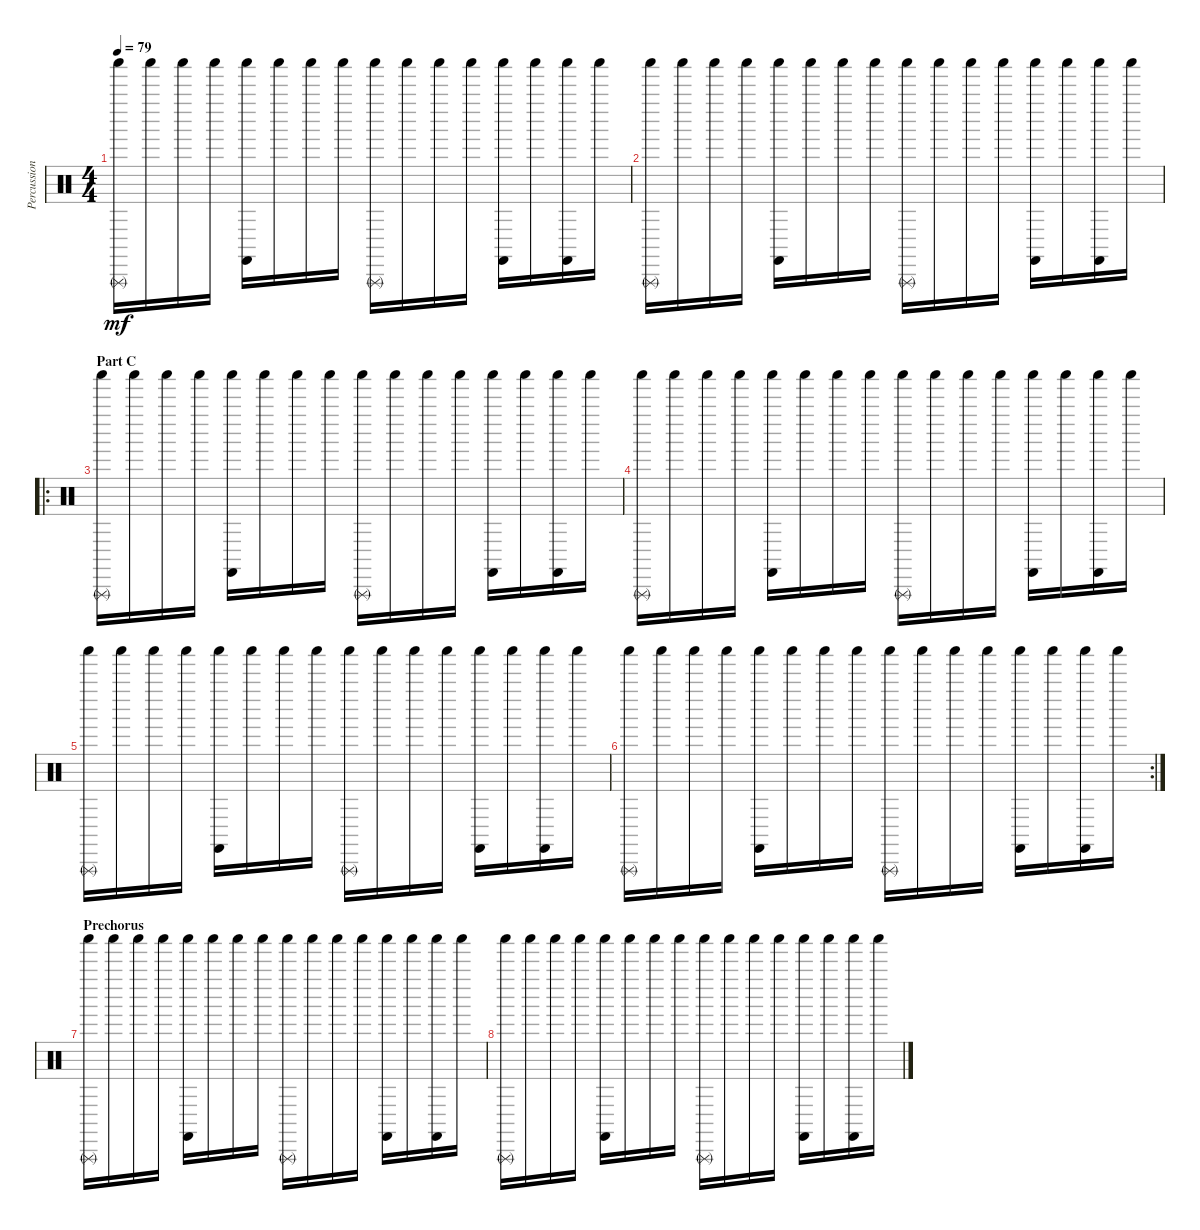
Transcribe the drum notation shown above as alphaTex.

\track ("Percussion" "Percussion") {instrument percussion}
\staff {score}
\articulation defaults
\ts (4 4)
\tempo 79
\clef neutral
\ks c
("Shaker (hit)" "Triangle (rnute)").16{dy mf} "Shaker (hit)".16 "Shaker (hit)".16 "Shaker (hit)".16 ("Shaker (hit)" "Castanets (hit)").16 "Shaker (hit)".16 "Shaker (hit)".16 "Shaker (hit)".16 ("Shaker (hit)" "Triangle (rnute)").16 "Shaker (hit)".16 "Shaker (hit)".16 "Shaker (hit)".16 ("Shaker (hit)" "Castanets (hit)").16 "Shaker (hit)".16 ("Shaker (hit)" "Castanets (hit)").16 "Shaker (hit)".16 |
("Shaker (hit)" "Triangle (rnute)").16 "Shaker (hit)".16 "Shaker (hit)".16 "Shaker (hit)".16 ("Shaker (hit)" "Castanets (hit)").16 "Shaker (hit)".16 "Shaker (hit)".16 "Shaker (hit)".16 ("Shaker (hit)" "Triangle (rnute)").16 "Shaker (hit)".16 "Shaker (hit)".16 "Shaker (hit)".16 ("Shaker (hit)" "Castanets (hit)").16 "Shaker (hit)".16 ("Shaker (hit)" "Castanets (hit)").16 "Shaker (hit)".16 |
\ro
\section ("" "Part C")
("Shaker (hit)" "Triangle (rnute)").16 "Shaker (hit)".16 "Shaker (hit)".16 "Shaker (hit)".16 ("Shaker (hit)" "Castanets (hit)").16 "Shaker (hit)".16 "Shaker (hit)".16 "Shaker (hit)".16 ("Shaker (hit)" "Triangle (rnute)").16 "Shaker (hit)".16 "Shaker (hit)".16 "Shaker (hit)".16 ("Shaker (hit)" "Castanets (hit)").16 "Shaker (hit)".16 ("Shaker (hit)" "Castanets (hit)").16 "Shaker (hit)".16 |
("Shaker (hit)" "Triangle (rnute)").16 "Shaker (hit)".16 "Shaker (hit)".16 "Shaker (hit)".16 ("Shaker (hit)" "Castanets (hit)").16 "Shaker (hit)".16 "Shaker (hit)".16 "Shaker (hit)".16 ("Shaker (hit)" "Triangle (rnute)").16 "Shaker (hit)".16 "Shaker (hit)".16 "Shaker (hit)".16 ("Shaker (hit)" "Castanets (hit)").16 "Shaker (hit)".16 ("Shaker (hit)" "Castanets (hit)").16 "Shaker (hit)".16 |
("Shaker (hit)" "Triangle (rnute)").16 "Shaker (hit)".16 "Shaker (hit)".16 "Shaker (hit)".16 ("Shaker (hit)" "Castanets (hit)").16 "Shaker (hit)".16 "Shaker (hit)".16 "Shaker (hit)".16 ("Shaker (hit)" "Triangle (rnute)").16 "Shaker (hit)".16 "Shaker (hit)".16 "Shaker (hit)".16 ("Shaker (hit)" "Castanets (hit)").16 "Shaker (hit)".16 ("Shaker (hit)" "Castanets (hit)").16 "Shaker (hit)".16 |
\rc 2
("Shaker (hit)" "Triangle (rnute)").16 "Shaker (hit)".16 "Shaker (hit)".16 "Shaker (hit)".16 ("Shaker (hit)" "Castanets (hit)").16 "Shaker (hit)".16 "Shaker (hit)".16 "Shaker (hit)".16 ("Shaker (hit)" "Triangle (rnute)").16 "Shaker (hit)".16 "Shaker (hit)".16 "Shaker (hit)".16 ("Shaker (hit)" "Castanets (hit)").16 "Shaker (hit)".16 ("Shaker (hit)" "Castanets (hit)").16 "Shaker (hit)".16 |
\section ("" "Prechorus")
("Shaker (hit)" "Triangle (rnute)").16 "Shaker (hit)".16 "Shaker (hit)".16 "Shaker (hit)".16 ("Shaker (hit)" "Castanets (hit)").16 "Shaker (hit)".16 "Shaker (hit)".16 "Shaker (hit)".16 ("Shaker (hit)" "Triangle (rnute)").16 "Shaker (hit)".16 "Shaker (hit)".16 "Shaker (hit)".16 ("Shaker (hit)" "Castanets (hit)").16 "Shaker (hit)".16 ("Shaker (hit)" "Castanets (hit)").16 "Shaker (hit)".16 |
("Shaker (hit)" "Triangle (rnute)").16 "Shaker (hit)".16 "Shaker (hit)".16 "Shaker (hit)".16 ("Shaker (hit)" "Castanets (hit)").16 "Shaker (hit)".16 "Shaker (hit)".16 "Shaker (hit)".16 ("Shaker (hit)" "Triangle (rnute)").16 "Shaker (hit)".16 "Shaker (hit)".16 "Shaker (hit)".16 ("Shaker (hit)" "Castanets (hit)").16 "Shaker (hit)".16 ("Shaker (hit)" "Castanets (hit)").16 "Shaker (hit)".16
